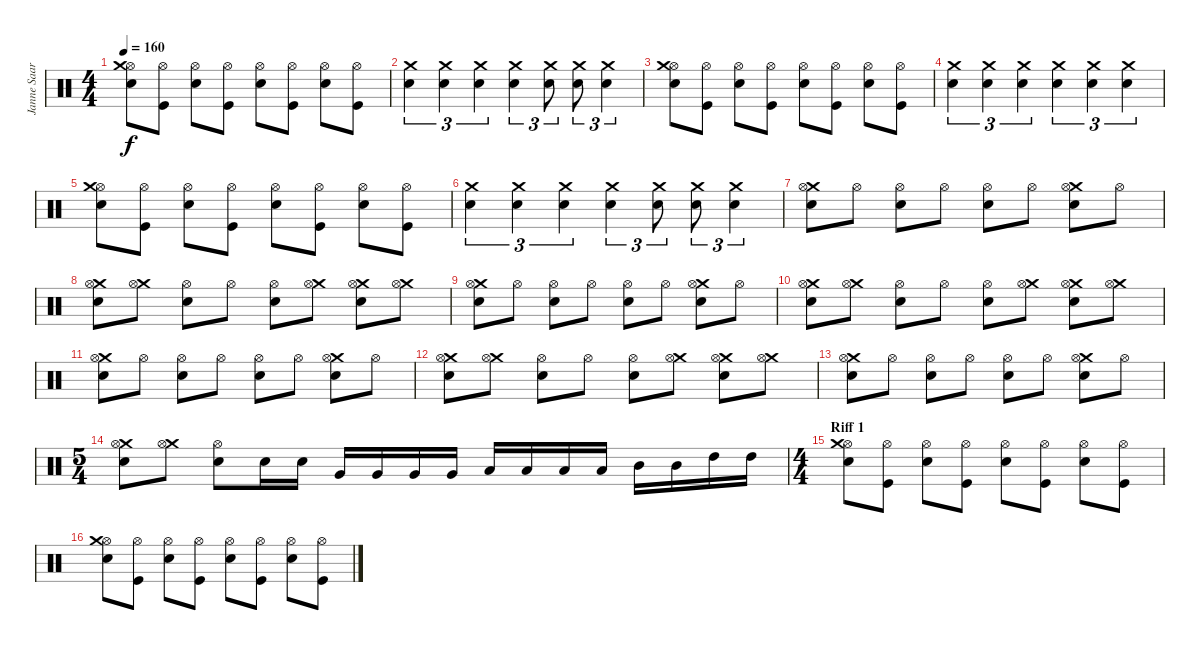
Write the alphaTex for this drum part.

\track ("Janne Saarenpaa" "Janne Saar") {instrument percussion}
\staff {score}
\articulation defaults
\ts (4 4)
\tempo 160
\clef neutral
\ks c
("Hi-Hat (open)" "Snare (hit) 2" "Crash medium (hit)").8{dy f} ("Hi-Hat (open)" "Kick (hit)").8 ("Hi-Hat (open)" "Snare (hit) 2").8 ("Hi-Hat (open)" "Kick (hit)").8 ("Hi-Hat (open)" "Snare (hit) 2").8 ("Hi-Hat (open)" "Kick (hit)").8 ("Hi-Hat (open)" "Snare (hit) 2").8 ("Hi-Hat (open)" "Kick (hit)").8 |
("Crash medium (hit)" "Snare (hit) 2").4{tu (3 2)} ("Crash medium (hit)" "Snare (hit) 2").4{tu (3 2)} ("Crash medium (hit)" "Snare (hit) 2").4{tu (3 2)} ("Crash medium (hit)" "Snare (hit) 2").4{tu (3 2)} ("Crash medium (hit)" "Snare (hit) 2").8{tu (3 2)} ("Crash medium (hit)" "Snare (hit) 2").8{tu (3 2)} ("Crash medium (hit)" "Snare (hit) 2").4{tu (3 2)} |
("Hi-Hat (open)" "Snare (hit) 2" "Crash medium (hit)").8 ("Hi-Hat (open)" "Kick (hit)").8 ("Hi-Hat (open)" "Snare (hit) 2").8 ("Hi-Hat (open)" "Kick (hit)").8 ("Hi-Hat (open)" "Snare (hit) 2").8 ("Hi-Hat (open)" "Kick (hit)").8 ("Hi-Hat (open)" "Snare (hit) 2").8 ("Hi-Hat (open)" "Kick (hit)").8 |
("Crash medium (hit)" "Snare (hit) 2").4{tu (3 2)} ("Crash medium (hit)" "Snare (hit) 2").4{tu (3 2)} ("Crash medium (hit)" "Snare (hit) 2").4{tu (3 2)} ("Crash medium (hit)" "Snare (hit) 2").4{tu (3 2)} ("Crash medium (hit)" "Snare (hit) 2").4{tu (3 2)} ("Crash medium (hit)" "Snare (hit) 2").4{tu (3 2)} |
("Hi-Hat (open)" "Snare (hit) 2" "Crash medium (hit)").8 ("Hi-Hat (open)" "Kick (hit)").8 ("Hi-Hat (open)" "Snare (hit) 2").8 ("Hi-Hat (open)" "Kick (hit)").8 ("Hi-Hat (open)" "Snare (hit) 2").8 ("Hi-Hat (open)" "Kick (hit)").8 ("Hi-Hat (open)" "Snare (hit) 2").8 ("Hi-Hat (open)" "Kick (hit)").8 |
("Crash medium (hit)" "Snare (hit) 2").4{tu (3 2)} ("Crash medium (hit)" "Snare (hit) 2").4{tu (3 2)} ("Crash medium (hit)" "Snare (hit) 2").4{tu (3 2)} ("Crash medium (hit)" "Snare (hit) 2").4{tu (3 2)} ("Crash medium (hit)" "Snare (hit) 2").8{tu (3 2)} ("Crash medium (hit)" "Snare (hit) 2").8{tu (3 2)} ("Crash medium (hit)" "Snare (hit) 2").4{tu (3 2)} |
("Snare (hit) 2" "Crash medium (hit)" "Hi-Hat (open)").8 "Hi-Hat (open)".8 ("Snare (hit) 2" "Hi-Hat (open)").8 "Hi-Hat (open)".8 ("Snare (hit) 2" "Hi-Hat (open)").8 "Hi-Hat (open)".8 ("Snare (hit) 2" "Crash medium (hit)" "Hi-Hat (open)").8 "Hi-Hat (open)".8 |
("Snare (hit) 2" "Crash medium (hit)" "Hi-Hat (open)").8 ("Crash medium (hit)" "Hi-Hat (open)").8 ("Snare (hit) 2" "Hi-Hat (open)").8 "Hi-Hat (open)".8 ("Snare (hit) 2" "Hi-Hat (open)").8 ("Crash medium (hit)" "Hi-Hat (open)").8 ("Snare (hit) 2" "Crash medium (hit)" "Hi-Hat (open)").8 ("Crash medium (hit)" "Hi-Hat (open)").8 |
("Snare (hit) 2" "Crash medium (hit)" "Hi-Hat (open)").8 "Hi-Hat (open)".8 ("Snare (hit) 2" "Hi-Hat (open)").8 "Hi-Hat (open)".8 ("Snare (hit) 2" "Hi-Hat (open)").8 "Hi-Hat (open)".8 ("Snare (hit) 2" "Crash medium (hit)" "Hi-Hat (open)").8 "Hi-Hat (open)".8 |
("Snare (hit) 2" "Crash medium (hit)" "Hi-Hat (open)").8 ("Crash medium (hit)" "Hi-Hat (open)").8 ("Snare (hit) 2" "Hi-Hat (open)").8 "Hi-Hat (open)".8 ("Snare (hit) 2" "Hi-Hat (open)").8 ("Crash medium (hit)" "Hi-Hat (open)").8 ("Snare (hit) 2" "Crash medium (hit)" "Hi-Hat (open)").8 ("Crash medium (hit)" "Hi-Hat (open)").8 |
("Snare (hit) 2" "Crash medium (hit)" "Hi-Hat (open)").8 "Hi-Hat (open)".8 ("Snare (hit) 2" "Hi-Hat (open)").8 "Hi-Hat (open)".8 ("Snare (hit) 2" "Hi-Hat (open)").8 "Hi-Hat (open)".8 ("Snare (hit) 2" "Crash medium (hit)" "Hi-Hat (open)").8 "Hi-Hat (open)".8 |
("Snare (hit) 2" "Crash medium (hit)" "Hi-Hat (open)").8 ("Crash medium (hit)" "Hi-Hat (open)").8 ("Snare (hit) 2" "Hi-Hat (open)").8 "Hi-Hat (open)".8 ("Snare (hit) 2" "Hi-Hat (open)").8 ("Crash medium (hit)" "Hi-Hat (open)").8 ("Snare (hit) 2" "Crash medium (hit)" "Hi-Hat (open)").8 ("Crash medium (hit)" "Hi-Hat (open)").8 |
("Snare (hit) 2" "Crash medium (hit)" "Hi-Hat (open)").8 "Hi-Hat (open)".8 ("Snare (hit) 2" "Hi-Hat (open)").8 "Hi-Hat (open)".8 ("Snare (hit) 2" "Hi-Hat (open)").8 "Hi-Hat (open)".8 ("Snare (hit) 2" "Crash medium (hit)" "Hi-Hat (open)").8 "Hi-Hat (open)".8 |
\ts (5 4)
("Snare (hit) 2" "Crash medium (hit)" "Hi-Hat (open)").8 ("Crash medium (hit)" "Hi-Hat (open)").8 ("Snare (hit) 2" "Hi-Hat (open)").8 "Snare (hit) 2".16 "Snare (hit) 2".16 "Very Low Tom (hit)".16 "Very Low Tom (hit)".16 "Very Low Tom (hit)".16 "Very Low Tom (hit)".16 "Low Tom (hit)".16 "Low Tom (hit)".16 "Low Tom (hit)".16 "Low Tom (hit)".16 "Mid Tom (hit)".16 "Mid Tom (hit)".16 "High Tom (hit)".16 "High Tom (hit)".16 |
\ts (4 4)
\section ("" "Riff 1")
("Hi-Hat (open)" "Snare (hit) 2" "Crash medium (hit)").8 ("Hi-Hat (open)" "Kick (hit)").8 ("Hi-Hat (open)" "Snare (hit) 2").8 ("Hi-Hat (open)" "Kick (hit)").8 ("Hi-Hat (open)" "Snare (hit) 2").8 ("Hi-Hat (open)" "Kick (hit)").8 ("Hi-Hat (open)" "Snare (hit) 2").8 ("Hi-Hat (open)" "Kick (hit)").8 |
("Hi-Hat (open)" "Snare (hit) 2" "Crash medium (hit)").8 ("Hi-Hat (open)" "Kick (hit)").8 ("Hi-Hat (open)" "Snare (hit) 2").8 ("Hi-Hat (open)" "Kick (hit)").8 ("Hi-Hat (open)" "Snare (hit) 2").8 ("Hi-Hat (open)" "Kick (hit)").8 ("Hi-Hat (open)" "Snare (hit) 2").8 ("Hi-Hat (open)" "Kick (hit)").8
